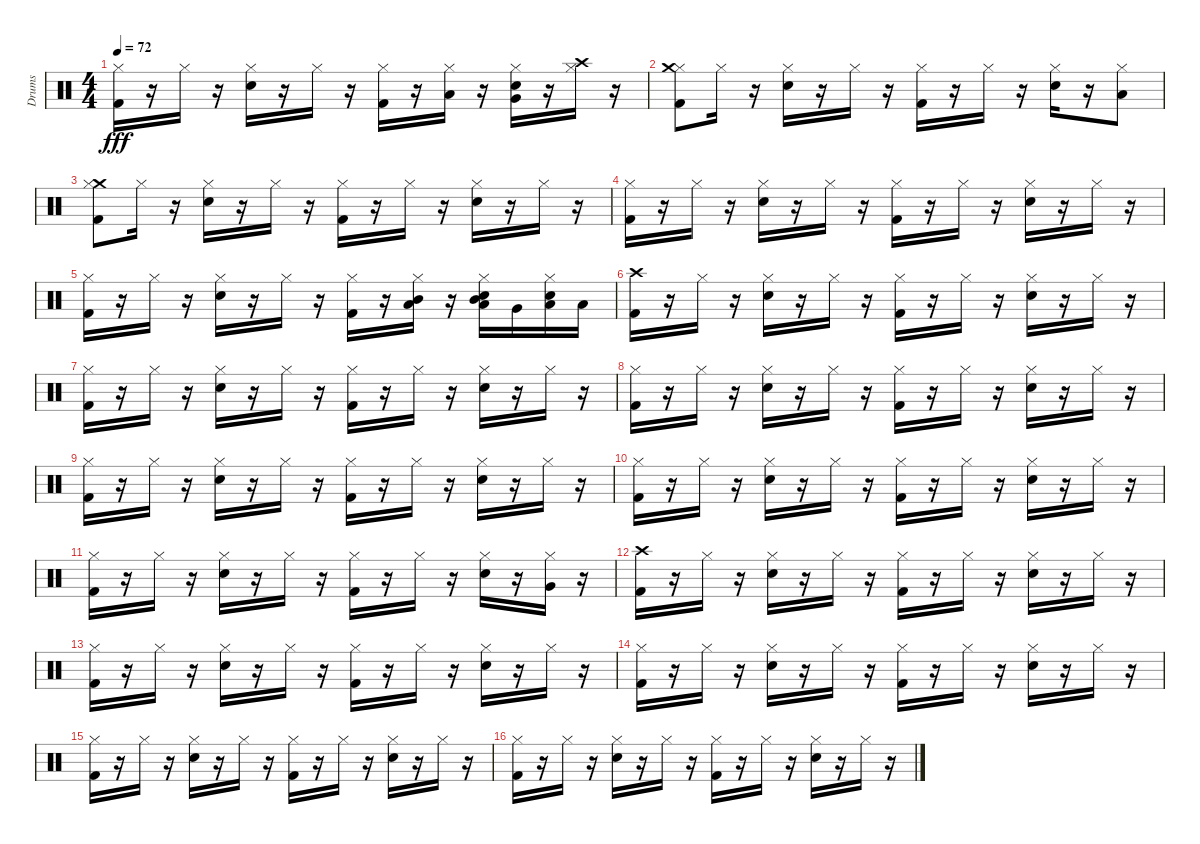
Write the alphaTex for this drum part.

\track ("Drums" "Drums") {instrument percussion}
\staff {score}
\articulation defaults
\ts (4 4)
\tempo 72
\clef neutral
\ks c
("Kick (hit) 2" "Hi-Hat (closed)").16{dy fff} r.16 "Hi-Hat (closed)".16 r.16 ("Hi-Hat (closed)" "Snare (hit) 2").16 r.16 "Hi-Hat (closed)".16 r.16 ("Kick (hit) 2" "Hi-Hat (closed)").16 r.16 ("Hi-Hat (closed)" "Low Tom (hit)").16 r.16 ("Snare (hit) 2" "Hi-Hat (closed)" "Very Low Tom (hit)").16 r.16 ("Hi-Hat (closed)" "Crash high (hit)").16 r.16 |
("Kick (hit) 2" "Hi-Hat (closed)" "Crash medium (hit)").8 "Hi-Hat (closed)".16 r.16 ("Hi-Hat (closed)" "Snare (hit) 2").16 r.16 "Hi-Hat (closed)".16 r.16 ("Kick (hit) 2" "Hi-Hat (closed)").16 r.16 "Hi-Hat (closed)".16 r.16 ("Snare (hit) 2" "Hi-Hat (closed)").16 r.16 ("Hi-Hat (closed)" "Low Floor Tom (hit)").8 |
("Crash medium (hit)" "Kick (hit) 2" "Hi-Hat (closed)").8 "Hi-Hat (closed)".16 r.16 ("Snare (hit) 2" "Hi-Hat (closed)").16 r.16 "Hi-Hat (closed)".16 r.16 ("Kick (hit) 2" "Hi-Hat (closed)").16 r.16 "Hi-Hat (closed)".16 r.16 ("Hi-Hat (closed)" "Snare (hit) 2").16 r.16 "Hi-Hat (closed)".16 r.16 |
("Hi-Hat (closed)" "Kick (hit) 2").16 r.16 "Hi-Hat (closed)".16 r.16 ("Hi-Hat (closed)" "Snare (hit) 2").16 r.16 "Hi-Hat (closed)".16 r.16 ("Kick (hit) 2" "Hi-Hat (closed)").16 r.16 "Hi-Hat (closed)".16 r.16 ("Hi-Hat (closed)" "Snare (hit) 2").16 r.16 "Hi-Hat (closed)".16 r.16 |
("Kick (hit) 2" "Hi-Hat (closed)").16 r.16 "Hi-Hat (closed)".16 r.16 ("Snare (hit) 2" "Hi-Hat (closed)").16 r.16 "Hi-Hat (closed)".16 r.16 ("Hi-Hat (closed)" "Kick (hit) 2").16 r.16 ("Mid Tom (hit)" "Hi-Hat (closed)" "Low Tom (hit)").16 r.16 ("Mid Tom (hit)" "Low Tom (hit)" "Hi-Hat (closed)" "Snare (hit) 2").16 "Very Low Tom (hit)".16 ("Hi-Hat (closed)" "Snare (hit) 2" "Low Floor Tom (hit)").16 "Low Floor Tom (hit)".16 |
("Crash high (hit)" "Kick (hit) 2").16 r.16 "Hi-Hat (closed)".16 r.16 ("Hi-Hat (closed)" "Snare (hit) 2").16 r.16 "Hi-Hat (closed)".16 r.16 ("Hi-Hat (closed)" "Kick (hit) 2").16 r.16 "Hi-Hat (closed)".16 r.16 ("Snare (hit) 2" "Hi-Hat (closed)").16 r.16 "Hi-Hat (closed)".16 r.16 |
("Kick (hit) 2" "Hi-Hat (closed)").16 r.16 "Hi-Hat (closed)".16 r.16 ("Snare (hit) 2" "Hi-Hat (closed)").16 r.16 "Hi-Hat (closed)".16 r.16 ("Kick (hit) 2" "Hi-Hat (closed)").16 r.16 "Hi-Hat (closed)".16 r.16 ("Snare (hit) 2" "Hi-Hat (closed)").16 r.16 "Hi-Hat (closed)".16 r.16 |
("Kick (hit) 2" "Hi-Hat (closed)").16 r.16 "Hi-Hat (closed)".16 r.16 ("Hi-Hat (closed)" "Snare (hit) 2").16 r.16 "Hi-Hat (closed)".16 r.16 ("Hi-Hat (closed)" "Kick (hit) 2").16 r.16 "Hi-Hat (closed)".16 r.16 ("Hi-Hat (closed)" "Snare (hit) 2").16 r.16 "Hi-Hat (closed)".16 r.16 |
("Kick (hit) 2" "Hi-Hat (closed)").16 r.16 "Hi-Hat (closed)".16 r.16 ("Snare (hit) 2" "Hi-Hat (closed)").16 r.16 "Hi-Hat (closed)".16 r.16 ("Hi-Hat (closed)" "Kick (hit) 2").16 r.16 "Hi-Hat (closed)".16 r.16 ("Snare (hit) 2" "Hi-Hat (closed)").16 r.16 "Hi-Hat (closed)".16 r.16 |
("Kick (hit) 2" "Hi-Hat (closed)").16 r.16 "Hi-Hat (closed)".16 r.16 ("Snare (hit) 2" "Hi-Hat (closed)").16 r.16 "Hi-Hat (closed)".16 r.16 ("Hi-Hat (closed)" "Kick (hit) 2").16 r.16 "Hi-Hat (closed)".16 r.16 ("Hi-Hat (closed)" "Snare (hit) 2").16 r.16 "Hi-Hat (closed)".16 r.16 |
("Hi-Hat (closed)" "Kick (hit) 2").16 r.16 "Hi-Hat (closed)".16 r.16 ("Hi-Hat (closed)" "Snare (hit) 2").16 r.16 "Hi-Hat (closed)".16 r.16 ("Kick (hit) 2" "Hi-Hat (closed)").16 r.16 "Hi-Hat (closed)".16 r.16 ("Snare (hit) 2" "Hi-Hat (closed)").16 r.16 ("Very Low Tom (hit)" "Hi-Hat (closed)").16 r.16 |
("Crash high (hit)" "Kick (hit) 2").16 r.16 "Hi-Hat (closed)".16 r.16 ("Hi-Hat (closed)" "Snare (hit) 2").16 r.16 "Hi-Hat (closed)".16 r.16 ("Hi-Hat (closed)" "Kick (hit) 2").16 r.16 "Hi-Hat (closed)".16 r.16 ("Snare (hit) 2" "Hi-Hat (closed)").16 r.16 "Hi-Hat (closed)".16 r.16 |
("Kick (hit) 2" "Hi-Hat (closed)").16 r.16 "Hi-Hat (closed)".16 r.16 ("Snare (hit) 2" "Hi-Hat (closed)").16 r.16 "Hi-Hat (closed)".16 r.16 ("Kick (hit) 2" "Hi-Hat (closed)").16 r.16 "Hi-Hat (closed)".16 r.16 ("Snare (hit) 2" "Hi-Hat (closed)").16 r.16 "Hi-Hat (closed)".16 r.16 |
("Kick (hit) 2" "Hi-Hat (closed)").16 r.16 "Hi-Hat (closed)".16 r.16 ("Hi-Hat (closed)" "Snare (hit) 2").16 r.16 "Hi-Hat (closed)".16 r.16 ("Hi-Hat (closed)" "Kick (hit) 2").16 r.16 "Hi-Hat (closed)".16 r.16 ("Hi-Hat (closed)" "Snare (hit) 2").16 r.16 "Hi-Hat (closed)".16 r.16 |
("Kick (hit) 2" "Hi-Hat (closed)").16 r.16 "Hi-Hat (closed)".16 r.16 ("Snare (hit) 2" "Hi-Hat (closed)").16 r.16 "Hi-Hat (closed)".16 r.16 ("Hi-Hat (closed)" "Kick (hit) 2").16 r.16 "Hi-Hat (closed)".16 r.16 ("Snare (hit) 2" "Hi-Hat (closed)").16 r.16 "Hi-Hat (closed)".16 r.16 |
("Kick (hit) 2" "Hi-Hat (closed)").16 r.16 "Hi-Hat (closed)".16 r.16 ("Snare (hit) 2" "Hi-Hat (closed)").16 r.16 "Hi-Hat (closed)".16 r.16 ("Hi-Hat (closed)" "Kick (hit) 2").16 r.16 "Hi-Hat (closed)".16 r.16 ("Hi-Hat (closed)" "Snare (hit) 2").16 r.16 "Hi-Hat (closed)".16 r.16
